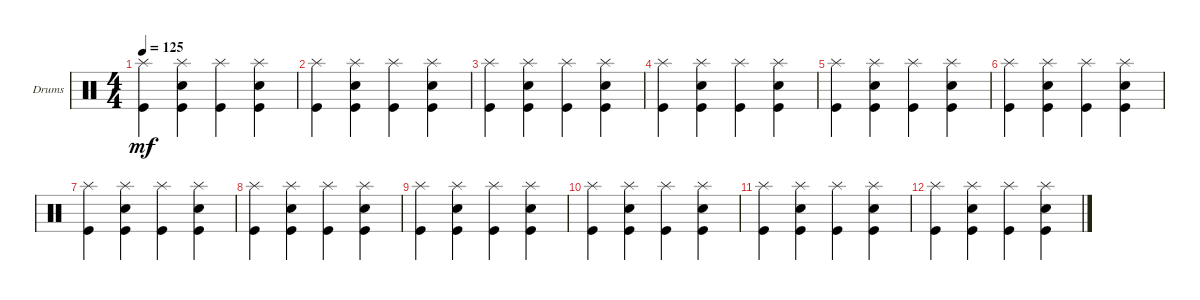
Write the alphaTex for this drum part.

\bracketExtendMode groupsimilarinstruments
\firstSystemTrackNameOrientation horizontal
\otherSystemsTrackNameOrientation horizontal
\track ("Drumkit" "Drums") {instrument percussion}
\staff {score}
\articulation defaults
\ts (4 4)
\tempo 125
\clef neutral
\ks c
("Splash (hit)" "Kick (hit)").4{dy mf} ("Splash (hit)" "Kick (hit)" "Snare (hit) 2").4 ("Splash (hit)" "Kick (hit)").4 ("Splash (hit)" "Kick (hit)" "Snare (hit) 2").4 |
("Splash (hit)" "Kick (hit)").4 ("Splash (hit)" "Kick (hit)" "Snare (hit) 2").4 ("Splash (hit)" "Kick (hit)").4 ("Splash (hit)" "Kick (hit)" "Snare (hit) 2").4 |
("Splash (hit)" "Kick (hit)").4 ("Splash (hit)" "Kick (hit)" "Snare (hit) 2").4 ("Splash (hit)" "Kick (hit)").4 ("Splash (hit)" "Kick (hit)" "Snare (hit) 2").4 |
("Splash (hit)" "Kick (hit)").4 ("Splash (hit)" "Kick (hit)" "Snare (hit) 2").4 ("Splash (hit)" "Kick (hit)").4 ("Splash (hit)" "Kick (hit)" "Snare (hit) 2").4 |
("Splash (hit)" "Kick (hit)").4 ("Splash (hit)" "Kick (hit)" "Snare (hit) 2").4 ("Splash (hit)" "Kick (hit)").4 ("Splash (hit)" "Kick (hit)" "Snare (hit) 2").4 |
("Splash (hit)" "Kick (hit)").4 ("Splash (hit)" "Kick (hit)" "Snare (hit) 2").4 ("Splash (hit)" "Kick (hit)").4 ("Splash (hit)" "Kick (hit)" "Snare (hit) 2").4 |
("Splash (hit)" "Kick (hit)").4 ("Splash (hit)" "Kick (hit)" "Snare (hit) 2").4 ("Splash (hit)" "Kick (hit)").4 ("Splash (hit)" "Kick (hit)" "Snare (hit) 2").4 |
("Splash (hit)" "Kick (hit)").4 ("Splash (hit)" "Kick (hit)" "Snare (hit) 2").4 ("Splash (hit)" "Kick (hit)").4 ("Splash (hit)" "Kick (hit)" "Snare (hit) 2").4 |
("Splash (hit)" "Kick (hit)").4 ("Splash (hit)" "Kick (hit)" "Snare (hit) 2").4 ("Splash (hit)" "Kick (hit)").4 ("Splash (hit)" "Kick (hit)" "Snare (hit) 2").4 |
("Splash (hit)" "Kick (hit)").4 ("Splash (hit)" "Kick (hit)" "Snare (hit) 2").4 ("Splash (hit)" "Kick (hit)").4 ("Splash (hit)" "Kick (hit)" "Snare (hit) 2").4 |
("Splash (hit)" "Kick (hit)").4 ("Splash (hit)" "Kick (hit)" "Snare (hit) 2").4 ("Splash (hit)" "Kick (hit)").4 ("Splash (hit)" "Kick (hit)" "Snare (hit) 2").4 |
("Splash (hit)" "Kick (hit)").4 ("Splash (hit)" "Kick (hit)" "Snare (hit) 2").4 ("Splash (hit)" "Kick (hit)").4 ("Splash (hit)" "Kick (hit)" "Snare (hit) 2").4
